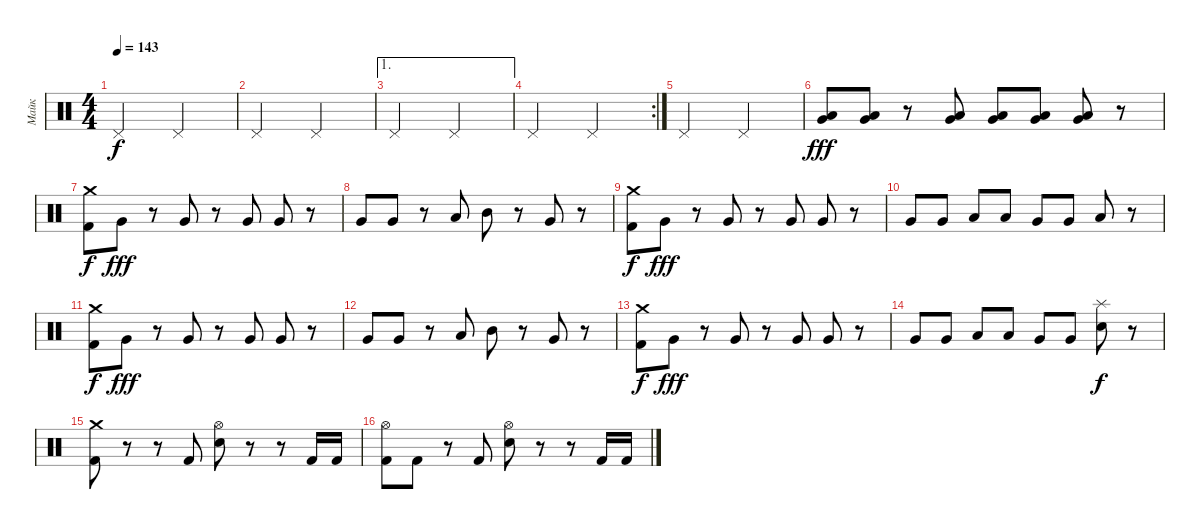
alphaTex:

\track ("Майк" "Майк") {instrument percussion}
\staff {score}
\articulation defaults
\ts (4 4)
\tempo 143
\clef neutral
\ks c "Pedal Hi-Hat (hit)".2{dy f} "Pedal Hi-Hat (hit)".2
|
"Pedal Hi-Hat (hit)".2 "Pedal Hi-Hat (hit)".2 |
\ae 1 "Pedal Hi-Hat (hit)".2 "Pedal Hi-Hat (hit)".2
|
\rc 2 "Pedal Hi-Hat (hit)".2 "Pedal Hi-Hat (hit)".2
|
"Pedal Hi-Hat (hit)".2 "Pedal Hi-Hat (hit)".2 |
("Low Floor Tom (hit)" "Very Low Tom (hit)").8{dy fff} ("Low Floor Tom (hit)" "Very Low Tom (hit)").8 r.8 ("Low Floor Tom (hit)" "Very Low Tom (hit)").8 ("Low Floor Tom (hit)" "Very Low Tom (hit)").8 ("Low Floor Tom (hit)" "Very Low Tom (hit)").8 ("Very Low Tom (hit)" "Low Tom (hit)").8 r.8 |
("Crash medium (hit)" "Kick (hit) 2").8{dy f} "Very Low Tom (hit)".8{dy fff} r.8 "Very Low Tom (hit)".8 r.8 "Very Low Tom (hit)".8 "Very Low Tom (hit)".8 r.8 |
"Very Low Tom (hit)".8 "Very Low Tom (hit)".8 r.8 "Low Tom (hit)".8 "Mid Tom (hit)".8 r.8 "Very Low Tom (hit)".8 r.8 |
("Crash medium (hit)" "Kick (hit) 2").8{dy f} "Very Low Tom (hit)".8{dy fff} r.8 "Very Low Tom (hit)".8 r.8 "Very Low Tom (hit)".8 "Very Low Tom (hit)".8 r.8 |
"Very Low Tom (hit)".8 "Very Low Tom (hit)".8 "Low Floor Tom (hit)".8 "Low Floor Tom (hit)".8 "Very Low Tom (hit)".8 "Very Low Tom (hit)".8 "Low Tom (hit)".8 r.8 |
("Crash medium (hit)" "Kick (hit) 2").8{dy f} "Very Low Tom (hit)".8{dy fff} r.8 "Very Low Tom (hit)".8 r.8 "Very Low Tom (hit)".8 "Very Low Tom (hit)".8 r.8 |
"Very Low Tom (hit)".8 "Very Low Tom (hit)".8 r.8 "Low Tom (hit)".8 "Mid Tom (hit)".8 r.8 "Very Low Tom (hit)".8 r.8 |
("Crash medium (hit)" "Kick (hit) 2").8{dy f} "Very Low Tom (hit)".8{dy fff} r.8 "Very Low Tom (hit)".8 r.8 "Very Low Tom (hit)".8 "Very Low Tom (hit)".8 r.8 |
"Very Low Tom (hit)".8 "Very Low Tom (hit)".8 "Low Floor Tom (hit)".8 "Low Floor Tom (hit)".8 "Very Low Tom (hit)".8 "Very Low Tom (hit)".8 ("Splash (hit)" "Electric Snare (hit)").8{dy f} r.8 |
("Crash medium (hit)" "Kick (hit) 2").8 r.8 r.8 "Kick (hit) 2".8 ("Hi-Hat (open)" "Electric Snare (hit)").8 r.8 r.8 "Kick (hit) 2".16 "Kick (hit) 2".16 |
("Hi-Hat (open)" "Kick (hit) 2").8 "Kick (hit) 2".8 r.8 "Kick (hit) 2".8 ("Hi-Hat (open)" "Electric Snare (hit)").8 r.8 r.8 "Kick (hit) 2".16 "Kick (hit) 2".16
